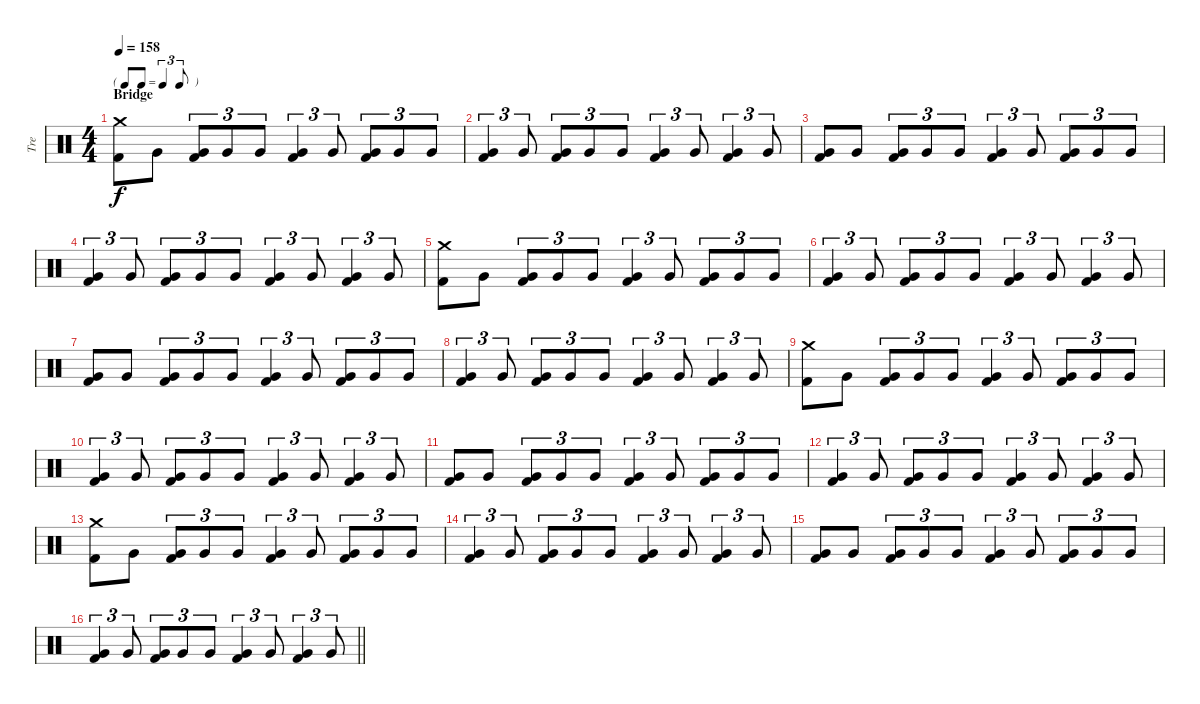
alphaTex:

\track ("Tre" "Tre") {instrument percussion}
\staff {score}
\articulation defaults
\ts (4 4)
\tf triplet8th
\section ("" "Bridge")
\tempo 158
\clef neutral
\ks c
("Crash medium (hit)" "Kick (hit) 2").8{dy f} "Very Low Tom (hit)".8 ("Very Low Tom (hit)" "Kick (hit) 2").8{tu (3 2)} "Very Low Tom (hit)".8{tu (3 2)} "Very Low Tom (hit)".8{tu (3 2)} ("Very Low Tom (hit)" "Kick (hit) 2").4{tu (3 2)} "Very Low Tom (hit)".8{tu (3 2)} ("Very Low Tom (hit)" "Kick (hit) 2").8{tu (3 2)} "Very Low Tom (hit)".8{tu (3 2)} "Very Low Tom (hit)".8{tu (3 2)} |
("Very Low Tom (hit)" "Kick (hit) 2").4{tu (3 2)} "Very Low Tom (hit)".8{tu (3 2)} ("Very Low Tom (hit)" "Kick (hit) 2").8{tu (3 2)} "Very Low Tom (hit)".8{tu (3 2)} "Very Low Tom (hit)".8{tu (3 2)} ("Very Low Tom (hit)" "Kick (hit) 2").4{tu (3 2)} "Very Low Tom (hit)".8{tu (3 2)} ("Very Low Tom (hit)" "Kick (hit) 2").4{tu (3 2)} "Very Low Tom (hit)".8{tu (3 2)} |
("Very Low Tom (hit)" "Kick (hit) 2").8 "Very Low Tom (hit)".8 ("Very Low Tom (hit)" "Kick (hit) 2").8{tu (3 2)} "Very Low Tom (hit)".8{tu (3 2)} "Very Low Tom (hit)".8{tu (3 2)} ("Very Low Tom (hit)" "Kick (hit) 2").4{tu (3 2)} "Very Low Tom (hit)".8{tu (3 2)} ("Very Low Tom (hit)" "Kick (hit) 2").8{tu (3 2)} "Very Low Tom (hit)".8{tu (3 2)} "Very Low Tom (hit)".8{tu (3 2)} |
("Very Low Tom (hit)" "Kick (hit) 2").4{tu (3 2)} "Very Low Tom (hit)".8{tu (3 2)} ("Very Low Tom (hit)" "Kick (hit) 2").8{tu (3 2)} "Very Low Tom (hit)".8{tu (3 2)} "Very Low Tom (hit)".8{tu (3 2)} ("Very Low Tom (hit)" "Kick (hit) 2").4{tu (3 2)} "Very Low Tom (hit)".8{tu (3 2)} ("Very Low Tom (hit)" "Kick (hit) 2").4{tu (3 2)} "Very Low Tom (hit)".8{tu (3 2)} |
("Crash medium (hit)" "Kick (hit) 2").8 "Very Low Tom (hit)".8 ("Very Low Tom (hit)" "Kick (hit) 2").8{tu (3 2)} "Very Low Tom (hit)".8{tu (3 2)} "Very Low Tom (hit)".8{tu (3 2)} ("Very Low Tom (hit)" "Kick (hit) 2").4{tu (3 2)} "Very Low Tom (hit)".8{tu (3 2)} ("Very Low Tom (hit)" "Kick (hit) 2").8{tu (3 2)} "Very Low Tom (hit)".8{tu (3 2)} "Very Low Tom (hit)".8{tu (3 2)} |
("Very Low Tom (hit)" "Kick (hit) 2").4{tu (3 2)} "Very Low Tom (hit)".8{tu (3 2)} ("Very Low Tom (hit)" "Kick (hit) 2").8{tu (3 2)} "Very Low Tom (hit)".8{tu (3 2)} "Very Low Tom (hit)".8{tu (3 2)} ("Very Low Tom (hit)" "Kick (hit) 2").4{tu (3 2)} "Very Low Tom (hit)".8{tu (3 2)} ("Very Low Tom (hit)" "Kick (hit) 2").4{tu (3 2)} "Very Low Tom (hit)".8{tu (3 2)} |
("Very Low Tom (hit)" "Kick (hit) 2").8 "Very Low Tom (hit)".8 ("Very Low Tom (hit)" "Kick (hit) 2").8{tu (3 2)} "Very Low Tom (hit)".8{tu (3 2)} "Very Low Tom (hit)".8{tu (3 2)} ("Very Low Tom (hit)" "Kick (hit) 2").4{tu (3 2)} "Very Low Tom (hit)".8{tu (3 2)} ("Very Low Tom (hit)" "Kick (hit) 2").8{tu (3 2)} "Very Low Tom (hit)".8{tu (3 2)} "Very Low Tom (hit)".8{tu (3 2)} |
("Very Low Tom (hit)" "Kick (hit) 2").4{tu (3 2)} "Very Low Tom (hit)".8{tu (3 2)} ("Very Low Tom (hit)" "Kick (hit) 2").8{tu (3 2)} "Very Low Tom (hit)".8{tu (3 2)} "Very Low Tom (hit)".8{tu (3 2)} ("Very Low Tom (hit)" "Kick (hit) 2").4{tu (3 2)} "Very Low Tom (hit)".8{tu (3 2)} ("Very Low Tom (hit)" "Kick (hit) 2").4{tu (3 2)} "Very Low Tom (hit)".8{tu (3 2)} |
("Crash medium (hit)" "Kick (hit) 2").8 "Very Low Tom (hit)".8 ("Very Low Tom (hit)" "Kick (hit) 2").8{tu (3 2)} "Very Low Tom (hit)".8{tu (3 2)} "Very Low Tom (hit)".8{tu (3 2)} ("Very Low Tom (hit)" "Kick (hit) 2").4{tu (3 2)} "Very Low Tom (hit)".8{tu (3 2)} ("Very Low Tom (hit)" "Kick (hit) 2").8{tu (3 2)} "Very Low Tom (hit)".8{tu (3 2)} "Very Low Tom (hit)".8{tu (3 2)} |
("Very Low Tom (hit)" "Kick (hit) 2").4{tu (3 2)} "Very Low Tom (hit)".8{tu (3 2)} ("Very Low Tom (hit)" "Kick (hit) 2").8{tu (3 2)} "Very Low Tom (hit)".8{tu (3 2)} "Very Low Tom (hit)".8{tu (3 2)} ("Very Low Tom (hit)" "Kick (hit) 2").4{tu (3 2)} "Very Low Tom (hit)".8{tu (3 2)} ("Very Low Tom (hit)" "Kick (hit) 2").4{tu (3 2)} "Very Low Tom (hit)".8{tu (3 2)} |
("Very Low Tom (hit)" "Kick (hit) 2").8 "Very Low Tom (hit)".8 ("Very Low Tom (hit)" "Kick (hit) 2").8{tu (3 2)} "Very Low Tom (hit)".8{tu (3 2)} "Very Low Tom (hit)".8{tu (3 2)} ("Very Low Tom (hit)" "Kick (hit) 2").4{tu (3 2)} "Very Low Tom (hit)".8{tu (3 2)} ("Very Low Tom (hit)" "Kick (hit) 2").8{tu (3 2)} "Very Low Tom (hit)".8{tu (3 2)} "Very Low Tom (hit)".8{tu (3 2)} |
("Very Low Tom (hit)" "Kick (hit) 2").4{tu (3 2)} "Very Low Tom (hit)".8{tu (3 2)} ("Very Low Tom (hit)" "Kick (hit) 2").8{tu (3 2)} "Very Low Tom (hit)".8{tu (3 2)} "Very Low Tom (hit)".8{tu (3 2)} ("Very Low Tom (hit)" "Kick (hit) 2").4{tu (3 2)} "Very Low Tom (hit)".8{tu (3 2)} ("Very Low Tom (hit)" "Kick (hit) 2").4{tu (3 2)} "Very Low Tom (hit)".8{tu (3 2)} |
("Crash medium (hit)" "Kick (hit) 2").8 "Very Low Tom (hit)".8 ("Very Low Tom (hit)" "Kick (hit) 2").8{tu (3 2)} "Very Low Tom (hit)".8{tu (3 2)} "Very Low Tom (hit)".8{tu (3 2)} ("Very Low Tom (hit)" "Kick (hit) 2").4{tu (3 2)} "Very Low Tom (hit)".8{tu (3 2)} ("Very Low Tom (hit)" "Kick (hit) 2").8{tu (3 2)} "Very Low Tom (hit)".8{tu (3 2)} "Very Low Tom (hit)".8{tu (3 2)} |
("Very Low Tom (hit)" "Kick (hit) 2").4{tu (3 2)} "Very Low Tom (hit)".8{tu (3 2)} ("Very Low Tom (hit)" "Kick (hit) 2").8{tu (3 2)} "Very Low Tom (hit)".8{tu (3 2)} "Very Low Tom (hit)".8{tu (3 2)} ("Very Low Tom (hit)" "Kick (hit) 2").4{tu (3 2)} "Very Low Tom (hit)".8{tu (3 2)} ("Very Low Tom (hit)" "Kick (hit) 2").4{tu (3 2)} "Very Low Tom (hit)".8{tu (3 2)} |
("Very Low Tom (hit)" "Kick (hit) 2").8 "Very Low Tom (hit)".8 ("Very Low Tom (hit)" "Kick (hit) 2").8{tu (3 2)} "Very Low Tom (hit)".8{tu (3 2)} "Very Low Tom (hit)".8{tu (3 2)} ("Very Low Tom (hit)" "Kick (hit) 2").4{tu (3 2)} "Very Low Tom (hit)".8{tu (3 2)} ("Very Low Tom (hit)" "Kick (hit) 2").8{tu (3 2)} "Very Low Tom (hit)".8{tu (3 2)} "Very Low Tom (hit)".8{tu (3 2)} |
\barLineRight lightlight
("Very Low Tom (hit)" "Kick (hit) 2").4{tu (3 2)} "Very Low Tom (hit)".8{tu (3 2)} ("Very Low Tom (hit)" "Kick (hit) 2").8{tu (3 2)} "Very Low Tom (hit)".8{tu (3 2)} "Very Low Tom (hit)".8{tu (3 2)} ("Very Low Tom (hit)" "Kick (hit) 2").4{tu (3 2)} "Very Low Tom (hit)".8{tu (3 2)} ("Very Low Tom (hit)" "Kick (hit) 2").4{tu (3 2)} "Very Low Tom (hit)".8{tu (3 2)}
